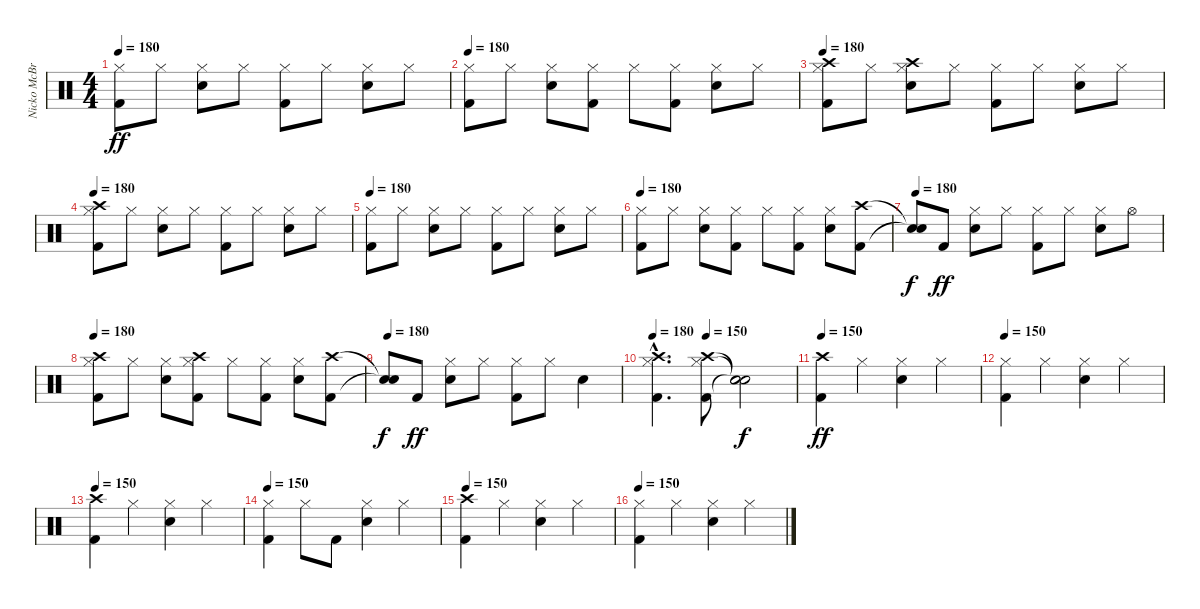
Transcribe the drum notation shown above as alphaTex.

\track ("Nicko McBrain" "Nicko McBr") {instrument percussion}
\staff {score}
\articulation defaults
\ts (4 4)
\tempo 180
\clef neutral
\ks c
("Kick (hit) 2" "Hi-Hat (closed)").8{dy ff} "Hi-Hat (closed)".8 ("Snare (hit) 2" "Hi-Hat (closed)").8 "Hi-Hat (closed)".8 ("Kick (hit) 2" "Hi-Hat (closed)").8 "Hi-Hat (closed)".8 ("Snare (hit) 2" "Hi-Hat (closed)").8 "Hi-Hat (closed)".8 |
\tempo 180
("Kick (hit) 2" "Hi-Hat (closed)").8 "Hi-Hat (closed)".8 ("Snare (hit) 2" "Hi-Hat (closed)").8 ("Kick (hit) 2" "Hi-Hat (closed)").8 "Hi-Hat (closed)".8 ("Kick (hit) 2" "Hi-Hat (closed)").8 ("Snare (hit) 2" "Hi-Hat (closed)").8 "Hi-Hat (closed)".8 |
\tempo 180
("Kick (hit) 2" "Hi-Hat (closed)" "Crash high (hit)").8 "Hi-Hat (closed)".8 ("Snare (hit) 2" "Hi-Hat (closed)" "Crash high (hit)").8 "Hi-Hat (closed)".8 ("Kick (hit) 2" "Hi-Hat (closed)").8 "Hi-Hat (closed)".8 ("Snare (hit) 2" "Hi-Hat (closed)").8 "Hi-Hat (closed)".8 |
\tempo 180
("Kick (hit) 2" "Hi-Hat (closed)" "Crash high (hit)").8 "Hi-Hat (closed)".8 ("Snare (hit) 2" "Hi-Hat (closed)").8 "Hi-Hat (closed)".8 ("Kick (hit) 2" "Hi-Hat (closed)").8 "Hi-Hat (closed)".8 ("Snare (hit) 2" "Hi-Hat (closed)").8 "Hi-Hat (closed)".8 |
\tempo 180
("Kick (hit) 2" "Hi-Hat (closed)").8 "Hi-Hat (closed)".8 ("Snare (hit) 2" "Hi-Hat (closed)").8 "Hi-Hat (closed)".8 ("Kick (hit) 2" "Hi-Hat (closed)").8 "Hi-Hat (closed)".8 ("Snare (hit) 2" "Hi-Hat (closed)").8 "Hi-Hat (closed)".8 |
\tempo 180
("Kick (hit) 2" "Hi-Hat (closed)").8 "Hi-Hat (closed)".8 ("Snare (hit) 2" "Hi-Hat (closed)").8 ("Kick (hit) 2" "Hi-Hat (closed)").8 "Hi-Hat (closed)".8 ("Kick (hit) 2" "Hi-Hat (closed)").8 ("Snare (hit) 2" "Hi-Hat (closed)").8 ("Kick (hit) 2" "Crash high (hit)").8 |
\tempo 180
("Snare (hit)"{t} "Snare (hit)"{t}).8{dy f} "Kick (hit) 2".8{dy ff} ("Snare (hit) 2" "Hi-Hat (closed)").8 "Hi-Hat (closed)".8 ("Kick (hit) 2" "Hi-Hat (closed)").8 "Hi-Hat (closed)".8 ("Snare (hit) 2" "Hi-Hat (closed)").8 "Hi-Hat (open)".8 |
\tempo 180
("Kick (hit) 2" "Hi-Hat (closed)" "Crash high (hit)").8 "Hi-Hat (closed)".8 ("Snare (hit) 2" "Hi-Hat (closed)").8 ("Kick (hit) 2" "Hi-Hat (closed)" "Crash high (hit)").8 "Hi-Hat (closed)".8 ("Kick (hit) 2" "Hi-Hat (closed)").8 ("Snare (hit) 2" "Hi-Hat (closed)").8 ("Kick (hit) 2" "Crash high (hit)").8 |
\tempo 180
("Snare (hit)"{t} "Snare (hit)"{t}).8{dy f} "Kick (hit) 2".8{dy ff} ("Snare (hit) 2" "Hi-Hat (closed)").8 "Hi-Hat (closed)".8 ("Kick (hit) 2" "Hi-Hat (closed)").8 "Hi-Hat (closed)".8 "Snare (hit) 2".4 |
\tempo (150 0.375)
\tempo 180
("Kick (hit) 2"{hac} "Hi-Hat (closed)"{hac} "Crash high (hit)"{hac}).4{d} ("Kick (hit) 2" "Hi-Hat (closed)" "Crash high (hit)").8 ("Snare (hit)"{t} "Snare (hit)"{t} "Snare (hit)"{t}).2{dy f} |
\tempo 150
("Kick (hit) 2" "Crash high (hit)").4{dy ff} "Hi-Hat (closed)".4 ("Snare (hit) 2" "Hi-Hat (closed)").4 "Hi-Hat (closed)".4 |
\tempo 150
("Kick (hit) 2" "Hi-Hat (closed)").4 "Hi-Hat (closed)".4 ("Snare (hit) 2" "Hi-Hat (closed)").4 "Hi-Hat (closed)".4 |
\tempo 150
("Kick (hit) 2" "Crash high (hit)").4 "Hi-Hat (closed)".4 ("Snare (hit) 2" "Hi-Hat (closed)").4 "Hi-Hat (closed)".4 |
\tempo 150
("Kick (hit) 2" "Hi-Hat (closed)").4 "Hi-Hat (closed)".8 "Kick (hit) 2".8 ("Snare (hit) 2" "Hi-Hat (closed)").4 "Hi-Hat (closed)".4 |
\tempo 150
("Kick (hit) 2" "Crash high (hit)").4 "Hi-Hat (closed)".4 ("Snare (hit) 2" "Hi-Hat (closed)").4 "Hi-Hat (closed)".4 |
\tempo 150
("Kick (hit) 2" "Hi-Hat (closed)").4 "Hi-Hat (closed)".4 ("Snare (hit) 2" "Hi-Hat (closed)").4 "Hi-Hat (closed)".4
